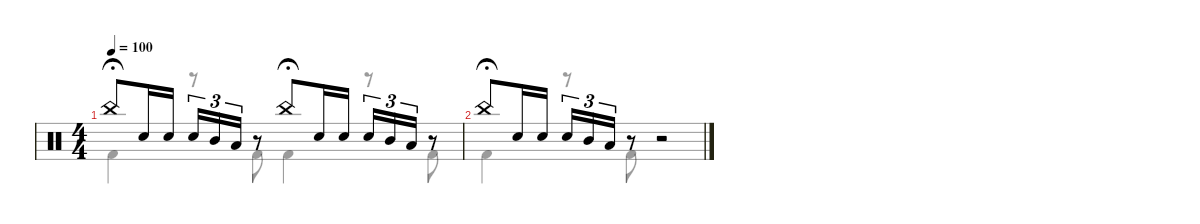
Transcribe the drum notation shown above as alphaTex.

\defaultSystemsLayout 4
\hideDynamics
\bracketExtendMode nobrackets
\singleTrackTrackNamePolicy hidden
\multiTrackTrackNamePolicy hidden
\firstSystemTrackNameMode fullname
\firstSystemTrackNameOrientation horizontal
\otherSystemsTrackNameOrientation horizontal
\track ("John Bonham" "Drums") {defaultSystemsLayout 2 instrument percussion}
\staff {score}
\articulation defaults
\voice
\ts (4 4)
\tempo 100
\clef neutral
\ks c "China (hit)".8{dy mf fermata (medium 0.5) beam Up} "Snare (hit) 2".16{beam Up} "Snare (hit) 2".16{beam Up} "Snare (hit) 2".16{tu (3 2) beam Up} "Mid Tom (hit)".16{tu (3 2) beam Up} "Low Tom (hit)".16{tu (3 2) beam Up}
r.8{beam Up} "China (hit)".8{fermata (medium 0.5) beam Up} "Snare (hit) 2".16{beam Up} "Snare (hit) 2".16{beam Up} "Snare (hit) 2".16{tu (3 2) beam Up} "Mid Tom (hit)".16{tu (3 2) beam Up} "Low Tom (hit)".16{tu (3 2) beam Up} r.8{beam Up} |
"China (hit)".8{fermata (medium 0.5) beam Up} "Snare (hit) 2".16{beam Up} "Snare (hit) 2".16{beam Up} "Snare (hit) 2".16{tu (3 2) beam Up} "Mid Tom (hit)".16{tu (3 2) beam Up} "Low Tom (hit)".16{tu (3 2) beam Up} r.8{beam Up} r.2{beam Up}
\voice
\clef neutral
\ottava regular
\simile none
\ks c "Kick (hit) 2".4{dy mf fermata (medium 0.5) beam Down}
r.8{beam Down} "Kick (hit) 2".8{beam Down} "Kick (hit) 2".4{fermata (medium 0.5) beam Down} r.8{beam Down} "Kick (hit) 2".8{beam Down} |
"Kick (hit) 2".4{fermata (medium 0.5) beam Down} r.8{beam Down} "Kick (hit) 2".8{beam Down} r.2{beam Up}
